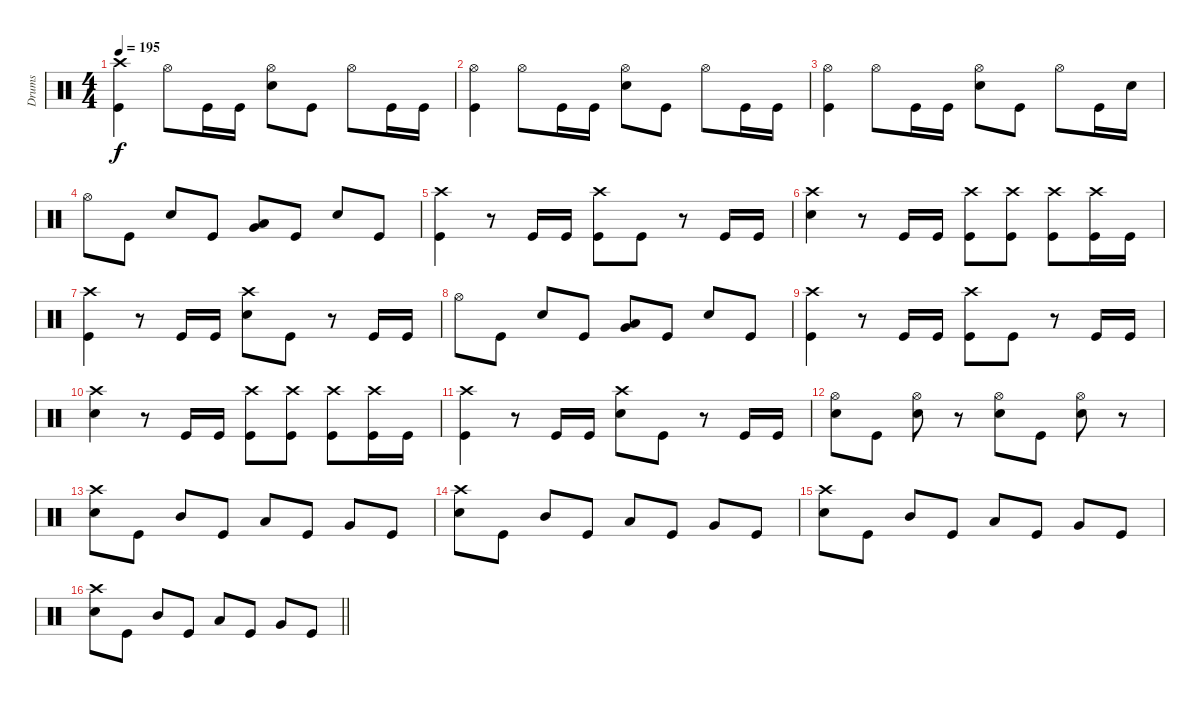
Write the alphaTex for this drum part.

\track ("Drums" "Drums") {instrument percussion}
\staff {score}
\articulation defaults
\ts (4 4)
\tempo 195
\clef neutral
\ks c
("Crash high (hit)" "Kick (hit)").4{dy f} "Hi-Hat (open)".8 "Kick (hit)".16 "Kick (hit)".16 ("Hi-Hat (open)" "Snare (hit) 2").8 "Kick (hit)".8 "Hi-Hat (open)".8 "Kick (hit)".16 "Kick (hit)".16 |
("Hi-Hat (open)" "Kick (hit)").4 "Hi-Hat (open)".8 "Kick (hit)".16 "Kick (hit)".16 ("Hi-Hat (open)" "Snare (hit) 2").8 "Kick (hit)".8 "Hi-Hat (open)".8 "Kick (hit)".16 "Kick (hit)".16 |
("Hi-Hat (open)" "Kick (hit)").4 "Hi-Hat (open)".8 "Kick (hit)".16 "Kick (hit)".16 ("Hi-Hat (open)" "Snare (hit) 2").8 "Kick (hit)".8 "Hi-Hat (open)".8 "Kick (hit)".16 "Snare (hit) 2".16 |
"Hi-Hat (open)".8 "Kick (hit)".8 "Snare (hit) 2".8 "Kick (hit)".8 ("Low Tom (hit)" "Very Low Tom (hit)").8 "Kick (hit)".8 "Snare (hit) 2".8 "Kick (hit)".8 |
("Crash high (hit)" "Kick (hit)").4 r.8 "Kick (hit)".16 "Kick (hit)".16 ("Crash high (hit)" "Kick (hit)").8 "Kick (hit)".8 r.8 "Kick (hit)".16 "Kick (hit)".16 |
("Crash high (hit)" "Snare (hit) 2").4 r.8 "Kick (hit)".16 "Kick (hit)".16 ("Crash high (hit)" "Kick (hit)").8 ("Crash high (hit)" "Kick (hit)").8 ("Crash high (hit)" "Kick (hit)").8 ("Crash high (hit)" "Kick (hit)").16 "Kick (hit)".16 |
("Crash high (hit)" "Kick (hit)").4 r.8 "Kick (hit)".16 "Kick (hit)".16 ("Crash high (hit)" "Snare (hit) 2").8 "Kick (hit)".8 r.8 "Kick (hit)".16 "Kick (hit)".16 |
"Hi-Hat (open)".8 "Kick (hit)".8 "Snare (hit) 2".8 "Kick (hit)".8 ("Low Tom (hit)" "Very Low Tom (hit)").8 "Kick (hit)".8 "Snare (hit) 2".8 "Kick (hit)".8 |
("Crash high (hit)" "Kick (hit)").4 r.8 "Kick (hit)".16 "Kick (hit)".16 ("Crash high (hit)" "Kick (hit)").8 "Kick (hit)".8 r.8 "Kick (hit)".16 "Kick (hit)".16 |
("Crash high (hit)" "Snare (hit) 2").4 r.8 "Kick (hit)".16 "Kick (hit)".16 ("Crash high (hit)" "Kick (hit)").8 ("Crash high (hit)" "Kick (hit)").8 ("Crash high (hit)" "Kick (hit)").8 ("Crash high (hit)" "Kick (hit)").16 "Kick (hit)".16 |
("Crash high (hit)" "Kick (hit)").4 r.8 "Kick (hit)".16 "Kick (hit)".16 ("Crash high (hit)" "Snare (hit) 2").8 "Kick (hit)".8 r.8 "Kick (hit)".16 "Kick (hit)".16 |
("Hi-Hat (open)" "Snare (hit) 2").8 "Kick (hit)".8 ("Hi-Hat (open)" "Snare (hit) 2").8 r.8 ("Hi-Hat (open)" "Snare (hit) 2").8 "Kick (hit)".8 ("Hi-Hat (open)" "Snare (hit) 2").8 r.8 |
("Crash high (hit)" "Snare (hit) 2").8 "Kick (hit)".8 "Mid Tom (hit)".8 "Kick (hit)".8 "Low Tom (hit)".8 "Kick (hit)".8 "Very Low Tom (hit)".8 "Kick (hit)".8 |
("Crash high (hit)" "Snare (hit) 2").8 "Kick (hit)".8 "Mid Tom (hit)".8 "Kick (hit)".8 "Low Tom (hit)".8 "Kick (hit)".8 "Very Low Tom (hit)".8 "Kick (hit)".8 |
("Crash high (hit)" "Snare (hit) 2").8 "Kick (hit)".8 "Mid Tom (hit)".8 "Kick (hit)".8 "Low Tom (hit)".8 "Kick (hit)".8 "Very Low Tom (hit)".8 "Kick (hit)".8 |
\barLineRight lightlight
("Crash high (hit)" "Snare (hit) 2").8 "Kick (hit)".8 "Mid Tom (hit)".8 "Kick (hit)".8 "Low Tom (hit)".8 "Kick (hit)".8 "Very Low Tom (hit)".8 "Kick (hit)".8
